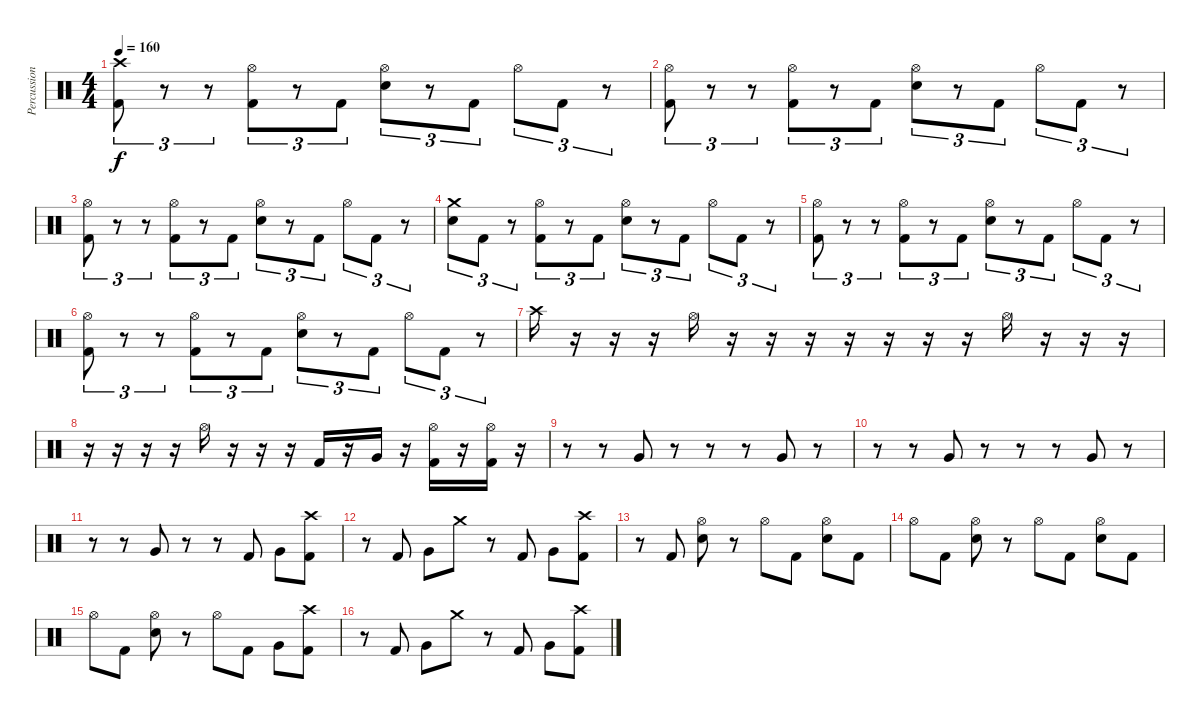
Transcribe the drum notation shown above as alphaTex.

\track ("Percussion" "Percussion") {instrument percussion}
\staff {score}
\articulation defaults
\ts (4 4)
\tempo 160
\clef neutral
\ks c
("Crash high (hit)" "Kick (hit) 2").8{tu (3 2) dy f} r.8{tu (3 2)} r.8{tu (3 2)} ("Hi-Hat (open)" "Kick (hit) 2").8{tu (3 2)} r.8{tu (3 2)} "Kick (hit) 2".8{tu (3 2)} ("Hi-Hat (open)" "Electric Snare (hit)").8{tu (3 2)} r.8{tu (3 2)} "Kick (hit) 2".8{tu (3 2)} "Hi-Hat (open)".8{tu (3 2)} "Kick (hit) 2".8{tu (3 2)} r.8{tu (3 2)} |
("Hi-Hat (open)" "Kick (hit) 2").8{tu (3 2)} r.8{tu (3 2)} r.8{tu (3 2)} ("Hi-Hat (open)" "Kick (hit) 2").8{tu (3 2)} r.8{tu (3 2)} "Kick (hit) 2".8{tu (3 2)} ("Hi-Hat (open)" "Electric Snare (hit)").8{tu (3 2)} r.8{tu (3 2)} "Kick (hit) 2".8{tu (3 2)} "Hi-Hat (open)".8{tu (3 2)} "Kick (hit) 2".8{tu (3 2)} r.8{tu (3 2)} |
("Hi-Hat (open)" "Kick (hit) 2").8{tu (3 2)} r.8{tu (3 2)} r.8{tu (3 2)} ("Hi-Hat (open)" "Kick (hit) 2").8{tu (3 2)} r.8{tu (3 2)} "Kick (hit) 2".8{tu (3 2)} ("Hi-Hat (open)" "Electric Snare (hit)").8{tu (3 2)} r.8{tu (3 2)} "Kick (hit) 2".8{tu (3 2)} "Hi-Hat (open)".8{tu (3 2)} "Kick (hit) 2".8{tu (3 2)} r.8{tu (3 2)} |
("Crash medium (hit)" "Electric Snare (hit)").8{tu (3 2)} "Kick (hit) 2".8{tu (3 2)} r.8{tu (3 2)} ("Hi-Hat (open)" "Kick (hit) 2").8{tu (3 2)} r.8{tu (3 2)} "Kick (hit) 2".8{tu (3 2)} ("Hi-Hat (open)" "Electric Snare (hit)").8{tu (3 2)} r.8{tu (3 2)} "Kick (hit) 2".8{tu (3 2)} "Hi-Hat (open)".8{tu (3 2)} "Kick (hit) 2".8{tu (3 2)} r.8{tu (3 2)} |
("Hi-Hat (open)" "Kick (hit) 2").8{tu (3 2)} r.8{tu (3 2)} r.8{tu (3 2)} ("Hi-Hat (open)" "Kick (hit) 2").8{tu (3 2)} r.8{tu (3 2)} "Kick (hit) 2".8{tu (3 2)} ("Hi-Hat (open)" "Electric Snare (hit)").8{tu (3 2)} r.8{tu (3 2)} "Kick (hit) 2".8{tu (3 2)} "Hi-Hat (open)".8{tu (3 2)} "Kick (hit) 2".8{tu (3 2)} r.8{tu (3 2)} |
("Hi-Hat (open)" "Kick (hit) 2").8{tu (3 2)} r.8{tu (3 2)} r.8{tu (3 2)} ("Hi-Hat (open)" "Kick (hit) 2").8{tu (3 2)} r.8{tu (3 2)} "Kick (hit) 2".8{tu (3 2)} ("Hi-Hat (open)" "Electric Snare (hit)").8{tu (3 2)} r.8{tu (3 2)} "Kick (hit) 2".8{tu (3 2)} "Hi-Hat (open)".8{tu (3 2)} "Kick (hit) 2".8{tu (3 2)} r.8{tu (3 2)} |
"Crash high (hit)".16 r.16 r.16 r.16 "Hi-Hat (open)".16 r.16 r.16 r.16 r.16 r.16 r.16 r.16 "Hi-Hat (open)".16 r.16 r.16 r.16 |
r.16 r.16 r.16 r.16 "Hi-Hat (open)".16 r.16 r.16 r.16 "Kick (hit) 2".16 r.16 "Very Low Tom (hit)".16 r.16 ("Hi-Hat (open)" "Kick (hit) 2").16 r.16 ("Hi-Hat (open)" "Kick (hit) 2").16 r.16 |
r.8 r.8 "Very Low Tom (hit)".8 r.8 r.8 r.8 "Very Low Tom (hit)".8 r.8 |
r.8 r.8 "Very Low Tom (hit)".8 r.8 r.8 r.8 "Very Low Tom (hit)".8 r.8 |
r.8 r.8 "Very Low Tom (hit)".8 r.8 r.8 "Kick (hit) 2".8 "Very Low Tom (hit)".8 ("Crash high (hit)" "Kick (hit) 2").8 |
r.8 "Kick (hit) 2".8 "Very Low Tom (hit)".8 "Crash medium (hit)".8 r.8 "Kick (hit) 2".8 "Very Low Tom (hit)".8 ("Crash high (hit)" "Kick (hit) 2").8 |
r.8 "Kick (hit) 2".8 ("Hi-Hat (open)" "Electric Snare (hit)").8 r.8 "Hi-Hat (open)".8 "Kick (hit) 2".8 ("Hi-Hat (open)" "Electric Snare (hit)").8 "Kick (hit) 2".8 |
"Hi-Hat (open)".8 "Kick (hit) 2".8 ("Hi-Hat (open)" "Electric Snare (hit)").8 r.8 "Hi-Hat (open)".8 "Kick (hit) 2".8 ("Hi-Hat (open)" "Electric Snare (hit)").8 "Kick (hit) 2".8 |
"Hi-Hat (open)".8 "Kick (hit) 2".8 ("Hi-Hat (open)" "Electric Snare (hit)").8 r.8 "Hi-Hat (open)".8 "Kick (hit) 2".8 "Very Low Tom (hit)".8 ("Crash high (hit)" "Kick (hit) 2").8 |
r.8 "Kick (hit) 2".8 "Very Low Tom (hit)".8 "Crash medium (hit)".8 r.8 "Kick (hit) 2".8 "Very Low Tom (hit)".8 ("Crash high (hit)" "Kick (hit) 2").8
